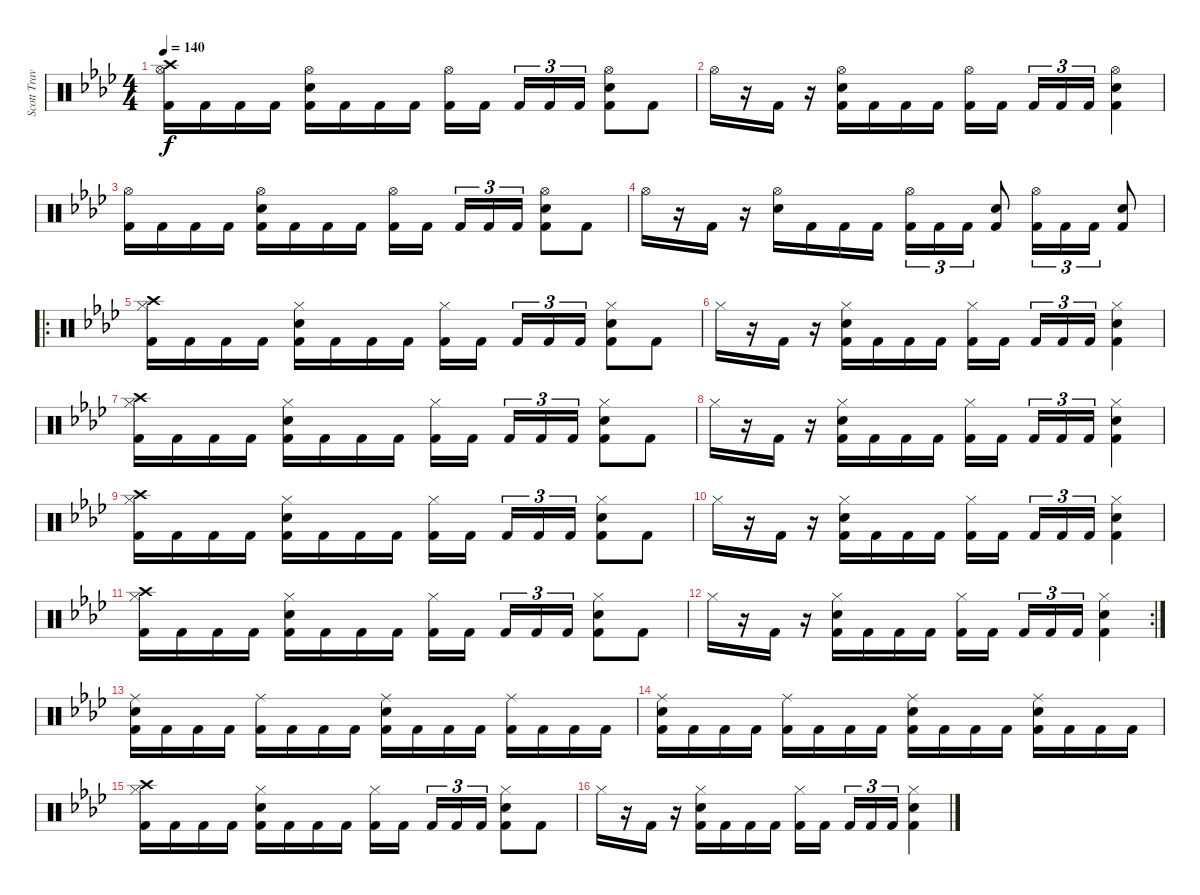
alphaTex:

\track ("Scott Travis" "Scott Trav") {instrument percussion}
\staff {score}
\articulation defaults
\ts (4 4)
\tempo 140
\clef neutral
\ks fminor
("Hi-Hat (open)" "Crash high (hit)" "Kick (hit) 2").16{dy f} "Kick (hit) 2".16 "Kick (hit) 2".16 "Kick (hit) 2".16 ("Hi-Hat (open)" "Electric Snare (hit)" "Kick (hit) 2").16 "Kick (hit) 2".16 "Kick (hit) 2".16 "Kick (hit) 2".16 ("Hi-Hat (open)" "Kick (hit) 2").16 "Kick (hit) 2".16{beam splitsecondary} "Kick (hit) 2".16{tu (3 2)} "Kick (hit) 2".16{tu (3 2)} "Kick (hit) 2".16{tu (3 2)} ("Hi-Hat (open)" "Electric Snare (hit)" "Kick (hit) 2").8 "Kick (hit) 2".8 |
"Hi-Hat (open)".16 r.16 "Kick (hit) 2".16 r.16 ("Hi-Hat (open)" "Electric Snare (hit)" "Kick (hit) 2").16 "Kick (hit) 2".16 "Kick (hit) 2".16 "Kick (hit) 2".16 ("Hi-Hat (open)" "Kick (hit) 2").16 "Kick (hit) 2".16{beam splitsecondary} "Kick (hit) 2".16{tu (3 2)} "Kick (hit) 2".16{tu (3 2)} "Kick (hit) 2".16{tu (3 2)} ("Hi-Hat (open)" "Electric Snare (hit)" "Kick (hit) 2").4 |
("Hi-Hat (open)" "Kick (hit) 2").16 "Kick (hit) 2".16 "Kick (hit) 2".16 "Kick (hit) 2".16 ("Hi-Hat (open)" "Electric Snare (hit)" "Kick (hit) 2").16 "Kick (hit) 2".16 "Kick (hit) 2".16 "Kick (hit) 2".16 ("Hi-Hat (open)" "Kick (hit) 2").16 "Kick (hit) 2".16{beam splitsecondary} "Kick (hit) 2".16{tu (3 2)} "Kick (hit) 2".16{tu (3 2)} "Kick (hit) 2".16{tu (3 2)} ("Hi-Hat (open)" "Electric Snare (hit)" "Kick (hit) 2").8 "Kick (hit) 2".8 |
"Hi-Hat (open)".16 r.16 "Kick (hit) 2".16 r.16 ("Hi-Hat (open)" "Electric Snare (hit)").16 "Kick (hit) 2".16 "Kick (hit) 2".16 "Kick (hit) 2".16 ("Hi-Hat (open)" "Kick (hit) 2").16{tu (3 2)} "Kick (hit) 2".16{tu (3 2)} "Kick (hit) 2".16{tu (3 2)} ("Electric Snare (hit)" "Kick (hit) 2").8 ("Hi-Hat (open)" "Kick (hit) 2").16{tu (3 2)} "Kick (hit) 2".16{tu (3 2)} "Kick (hit) 2".16{tu (3 2)} ("Electric Snare (hit)" "Kick (hit) 2").8 |
\ro
("Hi-Hat (closed)" "Crash high (hit)" "Kick (hit) 2").16 "Kick (hit) 2".16 "Kick (hit) 2".16 "Kick (hit) 2".16 ("Hi-Hat (closed)" "Electric Snare (hit)" "Kick (hit) 2").16 "Kick (hit) 2".16 "Kick (hit) 2".16 "Kick (hit) 2".16 ("Hi-Hat (closed)" "Kick (hit) 2").16 "Kick (hit) 2".16{beam splitsecondary} "Kick (hit) 2".16{tu (3 2)} "Kick (hit) 2".16{tu (3 2)} "Kick (hit) 2".16{tu (3 2)} ("Hi-Hat (closed)" "Electric Snare (hit)" "Kick (hit) 2").8 "Kick (hit) 2".8 |
"Hi-Hat (closed)".16 r.16 "Kick (hit) 2".16 r.16 ("Hi-Hat (closed)" "Electric Snare (hit)" "Kick (hit) 2").16 "Kick (hit) 2".16 "Kick (hit) 2".16 "Kick (hit) 2".16 ("Hi-Hat (closed)" "Kick (hit) 2").16 "Kick (hit) 2".16{beam splitsecondary} "Kick (hit) 2".16{tu (3 2)} "Kick (hit) 2".16{tu (3 2)} "Kick (hit) 2".16{tu (3 2)} ("Hi-Hat (closed)" "Electric Snare (hit)" "Kick (hit) 2").4 |
("Hi-Hat (closed)" "Crash high (hit)" "Kick (hit) 2").16 "Kick (hit) 2".16 "Kick (hit) 2".16 "Kick (hit) 2".16 ("Hi-Hat (closed)" "Electric Snare (hit)" "Kick (hit) 2").16 "Kick (hit) 2".16 "Kick (hit) 2".16 "Kick (hit) 2".16 ("Hi-Hat (closed)" "Kick (hit) 2").16 "Kick (hit) 2".16{beam splitsecondary} "Kick (hit) 2".16{tu (3 2)} "Kick (hit) 2".16{tu (3 2)} "Kick (hit) 2".16{tu (3 2)} ("Hi-Hat (closed)" "Electric Snare (hit)" "Kick (hit) 2").8 "Kick (hit) 2".8 |
"Hi-Hat (closed)".16 r.16 "Kick (hit) 2".16 r.16 ("Hi-Hat (closed)" "Electric Snare (hit)" "Kick (hit) 2").16 "Kick (hit) 2".16 "Kick (hit) 2".16 "Kick (hit) 2".16 ("Hi-Hat (closed)" "Kick (hit) 2").16 "Kick (hit) 2".16{beam splitsecondary} "Kick (hit) 2".16{tu (3 2)} "Kick (hit) 2".16{tu (3 2)} "Kick (hit) 2".16{tu (3 2)} ("Hi-Hat (closed)" "Electric Snare (hit)" "Kick (hit) 2").4 |
("Hi-Hat (closed)" "Crash high (hit)" "Kick (hit) 2").16 "Kick (hit) 2".16 "Kick (hit) 2".16 "Kick (hit) 2".16 ("Hi-Hat (closed)" "Electric Snare (hit)" "Kick (hit) 2").16 "Kick (hit) 2".16 "Kick (hit) 2".16 "Kick (hit) 2".16 ("Hi-Hat (closed)" "Kick (hit) 2").16 "Kick (hit) 2".16{beam splitsecondary} "Kick (hit) 2".16{tu (3 2)} "Kick (hit) 2".16{tu (3 2)} "Kick (hit) 2".16{tu (3 2)} ("Hi-Hat (closed)" "Electric Snare (hit)" "Kick (hit) 2").8 "Kick (hit) 2".8 |
"Hi-Hat (closed)".16 r.16 "Kick (hit) 2".16 r.16 ("Hi-Hat (closed)" "Electric Snare (hit)" "Kick (hit) 2").16 "Kick (hit) 2".16 "Kick (hit) 2".16 "Kick (hit) 2".16 ("Hi-Hat (closed)" "Kick (hit) 2").16 "Kick (hit) 2".16{beam splitsecondary} "Kick (hit) 2".16{tu (3 2)} "Kick (hit) 2".16{tu (3 2)} "Kick (hit) 2".16{tu (3 2)} ("Hi-Hat (closed)" "Electric Snare (hit)" "Kick (hit) 2").4 |
("Hi-Hat (closed)" "Crash high (hit)" "Kick (hit) 2").16 "Kick (hit) 2".16 "Kick (hit) 2".16 "Kick (hit) 2".16 ("Hi-Hat (closed)" "Electric Snare (hit)" "Kick (hit) 2").16 "Kick (hit) 2".16 "Kick (hit) 2".16 "Kick (hit) 2".16 ("Hi-Hat (closed)" "Kick (hit) 2").16 "Kick (hit) 2".16{beam splitsecondary} "Kick (hit) 2".16{tu (3 2)} "Kick (hit) 2".16{tu (3 2)} "Kick (hit) 2".16{tu (3 2)} ("Hi-Hat (closed)" "Electric Snare (hit)" "Kick (hit) 2").8 "Kick (hit) 2".8 |
\rc 2 "Hi-Hat (closed)".16
r.16 "Kick (hit) 2".16 r.16 ("Hi-Hat (closed)" "Electric Snare (hit)" "Kick (hit) 2").16 "Kick (hit) 2".16 "Kick (hit) 2".16 "Kick (hit) 2".16 ("Hi-Hat (closed)" "Kick (hit) 2").16 "Kick (hit) 2".16{beam splitsecondary} "Kick (hit) 2".16{tu (3 2)} "Kick (hit) 2".16{tu (3 2)} "Kick (hit) 2".16{tu (3 2)} ("Hi-Hat (closed)" "Electric Snare (hit)" "Kick (hit) 2").4 |
("Ride (middle)" "Electric Snare (hit)" "Kick (hit) 2").16 "Kick (hit) 2".16 "Kick (hit) 2".16 "Kick (hit) 2".16 ("Ride (middle)" "Kick (hit) 2").16 "Kick (hit) 2".16 "Kick (hit) 2".16 "Kick (hit) 2".16 ("Ride (middle)" "Electric Snare (hit)" "Kick (hit) 2").16 "Kick (hit) 2".16 "Kick (hit) 2".16 "Kick (hit) 2".16 ("Ride (middle)" "Kick (hit) 2").16 "Kick (hit) 2".16 "Kick (hit) 2".16 "Kick (hit) 2".16 |
("Ride (middle)" "Electric Snare (hit)" "Kick (hit) 2").16 "Kick (hit) 2".16 "Kick (hit) 2".16 "Kick (hit) 2".16 ("Ride (middle)" "Kick (hit) 2").16 "Kick (hit) 2".16 "Kick (hit) 2".16 "Kick (hit) 2".16 ("Ride (middle)" "Electric Snare (hit)" "Kick (hit) 2").16 "Kick (hit) 2".16 "Kick (hit) 2".16 "Kick (hit) 2".16 ("Ride (middle)" "Electric Snare (hit)" "Kick (hit) 2").16 "Kick (hit) 2".16 "Kick (hit) 2".16 "Kick (hit) 2".16 |
("Hi-Hat (closed)" "Crash high (hit)" "Kick (hit) 2").16 "Kick (hit) 2".16 "Kick (hit) 2".16 "Kick (hit) 2".16 ("Hi-Hat (closed)" "Electric Snare (hit)" "Kick (hit) 2").16 "Kick (hit) 2".16 "Kick (hit) 2".16 "Kick (hit) 2".16 ("Hi-Hat (closed)" "Kick (hit) 2").16 "Kick (hit) 2".16{beam splitsecondary} "Kick (hit) 2".16{tu (3 2)} "Kick (hit) 2".16{tu (3 2)} "Kick (hit) 2".16{tu (3 2)} ("Hi-Hat (closed)" "Electric Snare (hit)" "Kick (hit) 2").8 "Kick (hit) 2".8 |
"Hi-Hat (closed)".16 r.16 "Kick (hit) 2".16 r.16 ("Hi-Hat (closed)" "Electric Snare (hit)" "Kick (hit) 2").16 "Kick (hit) 2".16 "Kick (hit) 2".16 "Kick (hit) 2".16 ("Hi-Hat (closed)" "Kick (hit) 2").16 "Kick (hit) 2".16{beam splitsecondary} "Kick (hit) 2".16{tu (3 2)} "Kick (hit) 2".16{tu (3 2)} "Kick (hit) 2".16{tu (3 2)} ("Hi-Hat (closed)" "Electric Snare (hit)" "Kick (hit) 2").4
